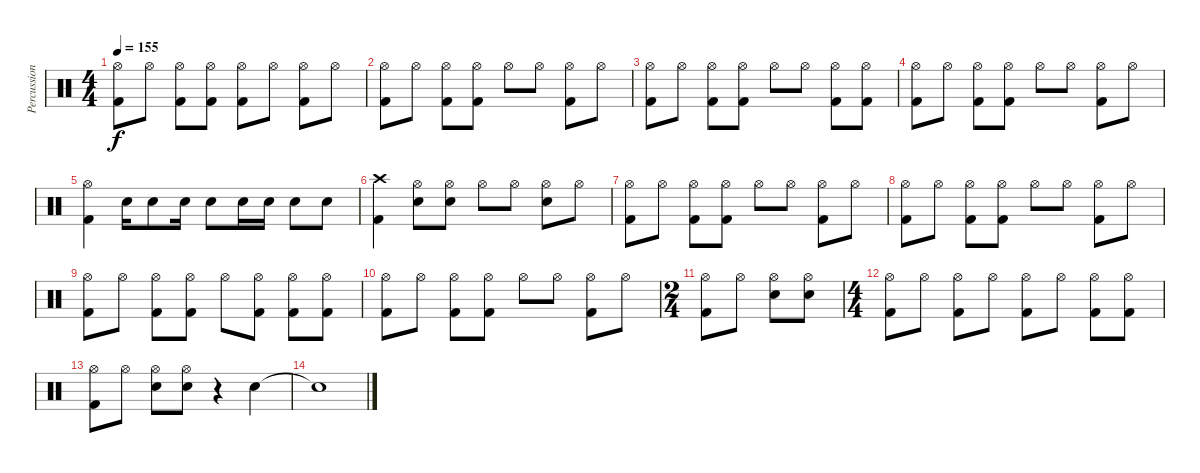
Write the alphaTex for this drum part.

\track ("Percussion" "Percussion") {instrument percussion}
\staff {score}
\articulation defaults
\ts (4 4)
\tempo 155
\clef neutral
\ks c
("Hi-Hat (open)" "Kick (hit) 2").8{dy f} "Hi-Hat (open)".8 ("Hi-Hat (open)" "Kick (hit) 2").8 ("Hi-Hat (open)" "Kick (hit) 2").8 ("Hi-Hat (open)" "Kick (hit) 2").8 "Hi-Hat (open)".8 ("Hi-Hat (open)" "Kick (hit) 2").8 "Hi-Hat (open)".8 |
("Hi-Hat (open)" "Kick (hit) 2").8 "Hi-Hat (open)".8 ("Hi-Hat (open)" "Kick (hit) 2").8 ("Hi-Hat (open)" "Kick (hit) 2").8 "Hi-Hat (open)".8 "Hi-Hat (open)".8 ("Hi-Hat (open)" "Kick (hit) 2").8 "Hi-Hat (open)".8 |
("Hi-Hat (open)" "Kick (hit) 2").8 "Hi-Hat (open)".8 ("Hi-Hat (open)" "Kick (hit) 2").8 ("Hi-Hat (open)" "Kick (hit) 2").8 "Hi-Hat (open)".8 "Hi-Hat (open)".8 ("Hi-Hat (open)" "Kick (hit) 2").8 ("Hi-Hat (open)" "Kick (hit) 2").8 |
("Hi-Hat (open)" "Kick (hit) 2").8 "Hi-Hat (open)".8 ("Hi-Hat (open)" "Kick (hit) 2").8 ("Hi-Hat (open)" "Kick (hit) 2").8 "Hi-Hat (open)".8 "Hi-Hat (open)".8 ("Hi-Hat (open)" "Kick (hit) 2").8 "Hi-Hat (open)".8 |
("Hi-Hat (open)" "Kick (hit) 2").4 "Snare (hit) 2".16 "Snare (hit) 2".8 "Snare (hit) 2".16 "Snare (hit) 2".8 "Snare (hit) 2".16 "Snare (hit) 2".16 "Snare (hit) 2".8 "Snare (hit) 2".8 |
("Crash high (hit)" "Kick (hit) 2").4 ("Hi-Hat (open)" "Snare (hit) 2").8 ("Hi-Hat (open)" "Snare (hit) 2").8 "Hi-Hat (open)".8 "Hi-Hat (open)".8 ("Hi-Hat (open)" "Snare (hit) 2").8 "Hi-Hat (open)".8 |
("Hi-Hat (open)" "Kick (hit) 2").8 "Hi-Hat (open)".8 ("Hi-Hat (open)" "Kick (hit) 2").8 ("Hi-Hat (open)" "Kick (hit) 2").8 "Hi-Hat (open)".8 "Hi-Hat (open)".8 ("Hi-Hat (open)" "Kick (hit) 2").8 "Hi-Hat (open)".8 |
("Hi-Hat (open)" "Kick (hit) 2").8 "Hi-Hat (open)".8 ("Hi-Hat (open)" "Kick (hit) 2").8 ("Hi-Hat (open)" "Kick (hit) 2").8 "Hi-Hat (open)".8 "Hi-Hat (open)".8 ("Hi-Hat (open)" "Kick (hit) 2").8 "Hi-Hat (open)".8 |
("Hi-Hat (open)" "Kick (hit) 2").8 "Hi-Hat (open)".8 ("Hi-Hat (open)" "Kick (hit) 2").8 ("Hi-Hat (open)" "Kick (hit) 2").8 "Hi-Hat (open)".8 ("Hi-Hat (open)" "Kick (hit) 2").8 ("Hi-Hat (open)" "Kick (hit) 2").8 ("Hi-Hat (open)" "Kick (hit) 2").8 |
("Hi-Hat (open)" "Kick (hit) 2").8 "Hi-Hat (open)".8 ("Hi-Hat (open)" "Kick (hit) 2").8 ("Hi-Hat (open)" "Kick (hit) 2").8 "Hi-Hat (open)".8 "Hi-Hat (open)".8 ("Hi-Hat (open)" "Kick (hit) 2").8 "Hi-Hat (open)".8 |
\ts (2 4)
("Hi-Hat (open)" "Kick (hit) 2").8 "Hi-Hat (open)".8 ("Hi-Hat (open)" "Snare (hit) 2").8 ("Hi-Hat (open)" "Snare (hit) 2").8 |
\ts (4 4)
("Hi-Hat (open)" "Kick (hit) 2").8 "Hi-Hat (open)".8 ("Hi-Hat (open)" "Kick (hit) 2").8 "Hi-Hat (open)".8 ("Hi-Hat (open)" "Kick (hit) 2").8 "Hi-Hat (open)".8 ("Hi-Hat (open)" "Kick (hit) 2").8 ("Hi-Hat (open)" "Kick (hit) 2").8 |
("Hi-Hat (open)" "Kick (hit) 2").8 "Hi-Hat (open)".8 ("Hi-Hat (open)" "Snare (hit) 2").8 ("Hi-Hat (open)" "Snare (hit) 2").8 r.4 "Snare (hit) 2".4 |
"Snare (hit)"{t}.1
